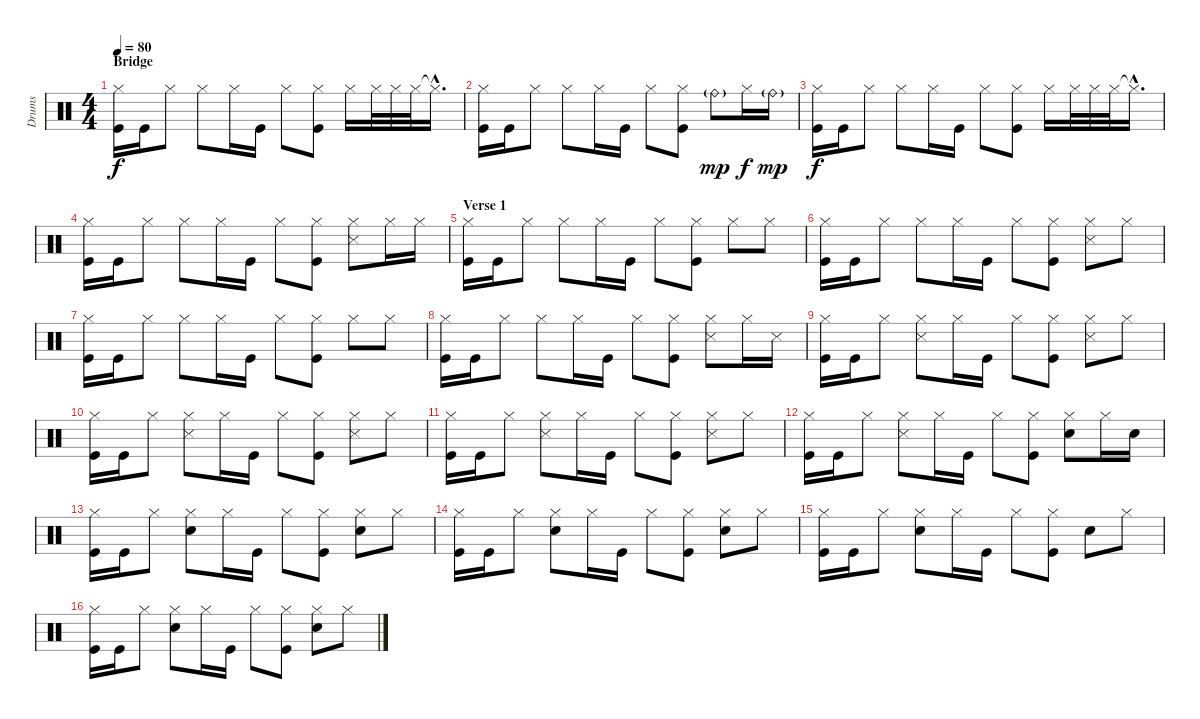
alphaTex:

\track ("Drums" "Drums") {instrument percussion}
\staff {score}
\articulation defaults
\ts (4 4)
\section ("" "Bridge")
\tempo 80
\clef neutral
\ks c
("Hi-Hat (closed)" "Kick (hit)").16{dy f} "Kick (hit)".16 "Hi-Hat (closed)".8 "Hi-Hat (closed)".8 "Hi-Hat (closed)".16 "Kick (hit)".16 "Hi-Hat (closed)".8 ("Hi-Hat (closed)" "Kick (hit)").8 "Hi-Hat (closed)".16 "Hi-Hat (closed)".32 "Hi-Hat (closed)".32 "Hi-Hat (closed)".32 "Hi-Hat (closed)"{hac t}.16{d} |
("Hi-Hat (closed)" "Kick (hit)").16 "Kick (hit)".16 "Hi-Hat (closed)".8 "Hi-Hat (closed)".8 "Hi-Hat (closed)".16 "Kick (hit)".16 "Hi-Hat (closed)".8 ("Hi-Hat (closed)" "Kick (hit)").8 "Ride (bell)"{g}.8{dy mp} "Hi-Hat (closed)".16{dy f} "Ride (bell)"{g}.16{dy mp} |
("Hi-Hat (closed)" "Kick (hit)").16{dy f} "Kick (hit)".16 "Hi-Hat (closed)".8 "Hi-Hat (closed)".8 "Hi-Hat (closed)".16 "Kick (hit)".16 "Hi-Hat (closed)".8 ("Hi-Hat (closed)" "Kick (hit)").8 "Hi-Hat (closed)".16 "Hi-Hat (closed)".32 "Hi-Hat (closed)".32 "Hi-Hat (closed)".32 "Hi-Hat (closed)"{hac t}.16{d} |
("Hi-Hat (closed)" "Kick (hit)").16 "Kick (hit)".16 "Hi-Hat (closed)".8 "Hi-Hat (closed)".8 "Hi-Hat (closed)".16 "Kick (hit)".16 "Hi-Hat (closed)".8 ("Hi-Hat (closed)" "Kick (hit)").8 ("Hi-Hat (closed)" "Snare (side stick) 3").8 "Hi-Hat (closed)".16 "Hi-Hat (closed)".16 |
\section ("" "Verse 1")
("Hi-Hat (closed)" "Kick (hit)").16 "Kick (hit)".16 "Hi-Hat (closed)".8 "Hi-Hat (closed)".8 "Hi-Hat (closed)".16 "Kick (hit)".16 "Hi-Hat (closed)".8 ("Hi-Hat (closed)" "Kick (hit)").8 "Hi-Hat (closed)".8 "Hi-Hat (closed)".8 |
("Hi-Hat (closed)" "Kick (hit)").16 "Kick (hit)".16 "Hi-Hat (closed)".8 "Hi-Hat (closed)".8 "Hi-Hat (closed)".16 "Kick (hit)".16 "Hi-Hat (closed)".8 ("Hi-Hat (closed)" "Kick (hit)").8 ("Hi-Hat (closed)" "Snare (side stick) 3").8 "Hi-Hat (closed)".8 |
("Hi-Hat (closed)" "Kick (hit)").16 "Kick (hit)".16 "Hi-Hat (closed)".8 "Hi-Hat (closed)".8 "Hi-Hat (closed)".16 "Kick (hit)".16 "Hi-Hat (closed)".8 ("Hi-Hat (closed)" "Kick (hit)").8 "Hi-Hat (closed)".8 "Hi-Hat (closed)".8 |
("Hi-Hat (closed)" "Kick (hit)").16 "Kick (hit)".16 "Hi-Hat (closed)".8 "Hi-Hat (closed)".8 "Hi-Hat (closed)".16 "Kick (hit)".16 "Hi-Hat (closed)".8 ("Hi-Hat (closed)" "Kick (hit)").8 ("Hi-Hat (closed)" "Snare (side stick) 3").8 "Hi-Hat (closed)".16 "Snare (side stick) 3".16 |
("Hi-Hat (closed)" "Kick (hit)").16 "Kick (hit)".16 "Hi-Hat (closed)".8 ("Hi-Hat (closed)" "Snare (side stick) 3").8 "Hi-Hat (closed)".16 "Kick (hit)".16 "Hi-Hat (closed)".8 ("Hi-Hat (closed)" "Kick (hit)").8 ("Hi-Hat (closed)" "Snare (side stick) 3").8 "Hi-Hat (closed)".8 |
("Hi-Hat (closed)" "Kick (hit)").16 "Kick (hit)".16 "Hi-Hat (closed)".8 ("Hi-Hat (closed)" "Snare (side stick) 3").8 "Hi-Hat (closed)".16 "Kick (hit)".16 "Hi-Hat (closed)".8 ("Hi-Hat (closed)" "Kick (hit)").8 ("Hi-Hat (closed)" "Snare (side stick) 3").8 "Hi-Hat (closed)".8 |
("Hi-Hat (closed)" "Kick (hit)").16 "Kick (hit)".16 "Hi-Hat (closed)".8 ("Hi-Hat (closed)" "Snare (side stick) 3").8 "Hi-Hat (closed)".16 "Kick (hit)".16 "Hi-Hat (closed)".8 ("Hi-Hat (closed)" "Kick (hit)").8 ("Hi-Hat (closed)" "Snare (side stick) 3").8 "Hi-Hat (closed)".8 |
("Hi-Hat (closed)" "Kick (hit)").16 "Kick (hit)".16 "Hi-Hat (closed)".8 ("Hi-Hat (closed)" "Snare (side stick) 3").8 "Hi-Hat (closed)".16 "Kick (hit)".16 "Hi-Hat (closed)".8 ("Hi-Hat (closed)" "Kick (hit)").8 ("Hi-Hat (closed)" "Electric Snare (hit)").8 "Hi-Hat (closed)".16 "Electric Snare (hit)".16 |
("Hi-Hat (closed)" "Kick (hit)").16 "Kick (hit)".16 "Hi-Hat (closed)".8 ("Hi-Hat (closed)" "Electric Snare (hit)").8 "Hi-Hat (closed)".16 "Kick (hit)".16 "Hi-Hat (closed)".8 ("Hi-Hat (closed)" "Kick (hit)").8 ("Hi-Hat (closed)" "Electric Snare (hit)").8 "Hi-Hat (closed)".8 |
("Hi-Hat (closed)" "Kick (hit)").16 "Kick (hit)".16 "Hi-Hat (closed)".8 ("Hi-Hat (closed)" "Electric Snare (hit)").8 "Hi-Hat (closed)".16 "Kick (hit)".16 "Hi-Hat (closed)".8 ("Hi-Hat (closed)" "Kick (hit)").8 ("Hi-Hat (closed)" "Electric Snare (hit)").8 "Hi-Hat (closed)".8 |
("Hi-Hat (closed)" "Kick (hit)").16 "Kick (hit)".16 "Hi-Hat (closed)".8 ("Hi-Hat (closed)" "Electric Snare (hit)").8 "Hi-Hat (closed)".16 "Kick (hit)".16 "Hi-Hat (closed)".8 ("Hi-Hat (closed)" "Kick (hit)").8 "Electric Snare (hit)".8 "Hi-Hat (closed)".8 |
("Hi-Hat (closed)" "Kick (hit)").16 "Kick (hit)".16 "Hi-Hat (closed)".8 ("Hi-Hat (closed)" "Electric Snare (hit)").8 "Hi-Hat (closed)".16 "Kick (hit)".16 "Hi-Hat (closed)".8 ("Hi-Hat (closed)" "Kick (hit)").8 ("Hi-Hat (closed)" "Electric Snare (hit)").8 "Hi-Hat (closed)".8
